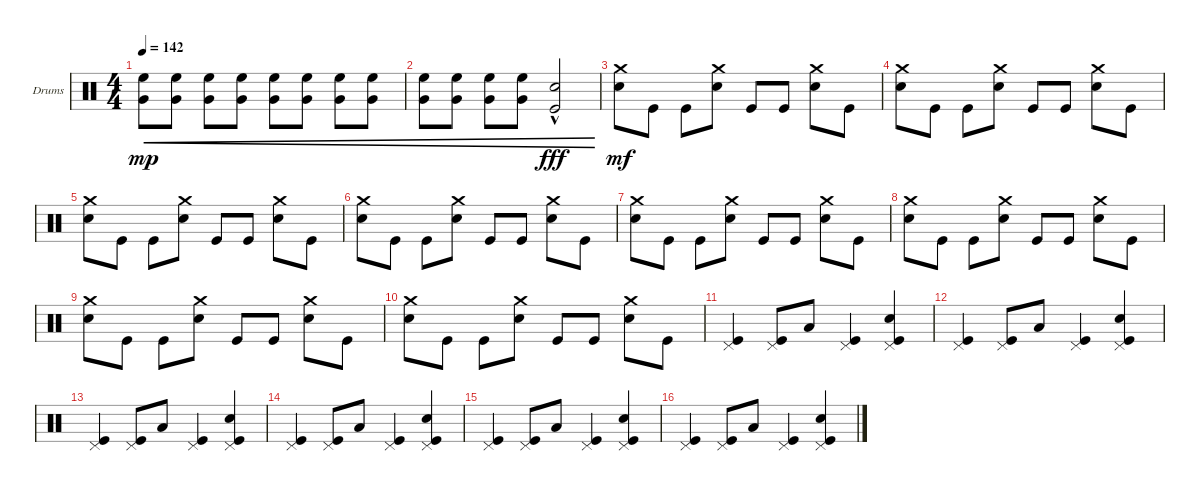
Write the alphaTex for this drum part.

\defaultSystemsLayout 4
\bracketExtendMode groupsimilarinstruments
\firstSystemTrackNameOrientation horizontal
\otherSystemsTrackNameOrientation horizontal
\track ("Drumkit" "Drums") {instrument percussion}
\staff {score}
\articulation defaults
\ts (4 4)
\tempo 142
\clef neutral
\scale
0.333333
\ks c
("Very Low Tom (hit)" "High Floor Tom (hit)").8{cre dy mp} ("Very Low Tom (hit)" "High Floor Tom (hit)").8{cre} ("Very Low Tom (hit)" "High Floor Tom (hit)").8{cre} ("Very Low Tom (hit)" "High Floor Tom (hit)").8{cre} ("Very Low Tom (hit)" "High Floor Tom (hit)").8{cre} ("Very Low Tom (hit)" "High Floor Tom (hit)").8{cre} ("Very Low Tom (hit)" "High Floor Tom (hit)").8{cre} ("Very Low Tom (hit)" "High Floor Tom (hit)").8{cre} |
\scale
0.333333 ("Very Low Tom (hit)" "High Floor Tom (hit)").8{cre} ("Very Low Tom (hit)" "High Floor Tom (hit)").8{cre} ("Very Low Tom (hit)" "High Floor Tom (hit)").8{cre} ("Very Low Tom (hit)" "High Floor Tom (hit)").8{cre} ("Snare (hit) 2"{hac} "Kick (hit)"{hac}).2{cre dy fff} |
\scale
0.333333 ("Snare (hit) 2" "Crash medium (hit)").8{dy mf} "Kick (hit)".8 "Kick (hit)".8 ("Snare (hit) 2" "Crash medium (hit)").8 "Kick (hit)".8 "Kick (hit)".8 ("Snare (hit) 2" "Crash medium (hit)").8 "Kick (hit)".8 |
\scale
0.333333 ("Snare (hit) 2" "Crash medium (hit)").8 "Kick (hit)".8 "Kick (hit)".8 ("Snare (hit) 2" "Crash medium (hit)").8 "Kick (hit)".8 "Kick (hit)".8 ("Snare (hit) 2" "Crash medium (hit)").8 "Kick (hit)".8 |
\scale
0.333333 ("Snare (hit) 2" "Crash medium (hit)").8 "Kick (hit)".8 "Kick (hit)".8 ("Snare (hit) 2" "Crash medium (hit)").8 "Kick (hit)".8 "Kick (hit)".8 ("Snare (hit) 2" "Crash medium (hit)").8 "Kick (hit)".8 |
\scale
0.333333 ("Snare (hit) 2" "Crash medium (hit)").8 "Kick (hit)".8 "Kick (hit)".8 ("Snare (hit) 2" "Crash medium (hit)").8 "Kick (hit)".8 "Kick (hit)".8 ("Snare (hit) 2" "Crash medium (hit)").8 "Kick (hit)".8 |
\scale
0.333333 ("Snare (hit) 2" "Crash medium (hit)").8 "Kick (hit)".8 "Kick (hit)".8 ("Snare (hit) 2" "Crash medium (hit)").8 "Kick (hit)".8 "Kick (hit)".8 ("Snare (hit) 2" "Crash medium (hit)").8 "Kick (hit)".8 |
\scale
0.333333 ("Snare (hit) 2" "Crash medium (hit)").8 "Kick (hit)".8 "Kick (hit)".8 ("Snare (hit) 2" "Crash medium (hit)").8 "Kick (hit)".8 "Kick (hit)".8 ("Snare (hit) 2" "Crash medium (hit)").8 "Kick (hit)".8 |
\scale
0.333333 ("Snare (hit) 2" "Crash medium (hit)").8 "Kick (hit)".8 "Kick (hit)".8 ("Snare (hit) 2" "Crash medium (hit)").8 "Kick (hit)".8 "Kick (hit)".8 ("Snare (hit) 2" "Crash medium (hit)").8 "Kick (hit)".8 |
\scale
0.333333 ("Snare (hit) 2" "Crash medium (hit)").8 "Kick (hit)".8 "Kick (hit)".8 ("Snare (hit) 2" "Crash medium (hit)").8 "Kick (hit)".8 "Kick (hit)".8 ("Snare (hit) 2" "Crash medium (hit)").8 "Kick (hit)".8 |
\scale
0.333333 ("Kick (hit)" "Pedal Hi-Hat (hit)").4 ("Pedal Hi-Hat (hit)" "Kick (hit)").8 "Low Tom (hit)".8 ("Kick (hit)" "Pedal Hi-Hat (hit)").4 ("Snare (hit) 2" "Kick (hit)" "Pedal Hi-Hat (hit)").4 |
\scale
0.333333 ("Kick (hit)" "Pedal Hi-Hat (hit)").4 ("Pedal Hi-Hat (hit)" "Kick (hit)").8 "Low Tom (hit)".8 ("Kick (hit)" "Pedal Hi-Hat (hit)").4 ("Snare (hit) 2" "Kick (hit)" "Pedal Hi-Hat (hit)").4 |
\scale
0.333333 ("Kick (hit)" "Pedal Hi-Hat (hit)").4 ("Pedal Hi-Hat (hit)" "Kick (hit)").8 "Low Tom (hit)".8 ("Kick (hit)" "Pedal Hi-Hat (hit)").4 ("Snare (hit) 2" "Kick (hit)" "Pedal Hi-Hat (hit)").4 |
\scale
0.333333 ("Kick (hit)" "Pedal Hi-Hat (hit)").4 ("Pedal Hi-Hat (hit)" "Kick (hit)").8 "Low Tom (hit)".8 ("Kick (hit)" "Pedal Hi-Hat (hit)").4 ("Snare (hit) 2" "Kick (hit)" "Pedal Hi-Hat (hit)").4 |
\scale
0.333333 ("Kick (hit)" "Pedal Hi-Hat (hit)").4 ("Pedal Hi-Hat (hit)" "Kick (hit)").8 "Low Tom (hit)".8 ("Kick (hit)" "Pedal Hi-Hat (hit)").4 ("Snare (hit) 2" "Kick (hit)" "Pedal Hi-Hat (hit)").4 |
\scale
0.333333 ("Kick (hit)" "Pedal Hi-Hat (hit)").4 ("Pedal Hi-Hat (hit)" "Kick (hit)").8 "Low Tom (hit)".8 ("Kick (hit)" "Pedal Hi-Hat (hit)").4 ("Snare (hit) 2" "Kick (hit)" "Pedal Hi-Hat (hit)").4
